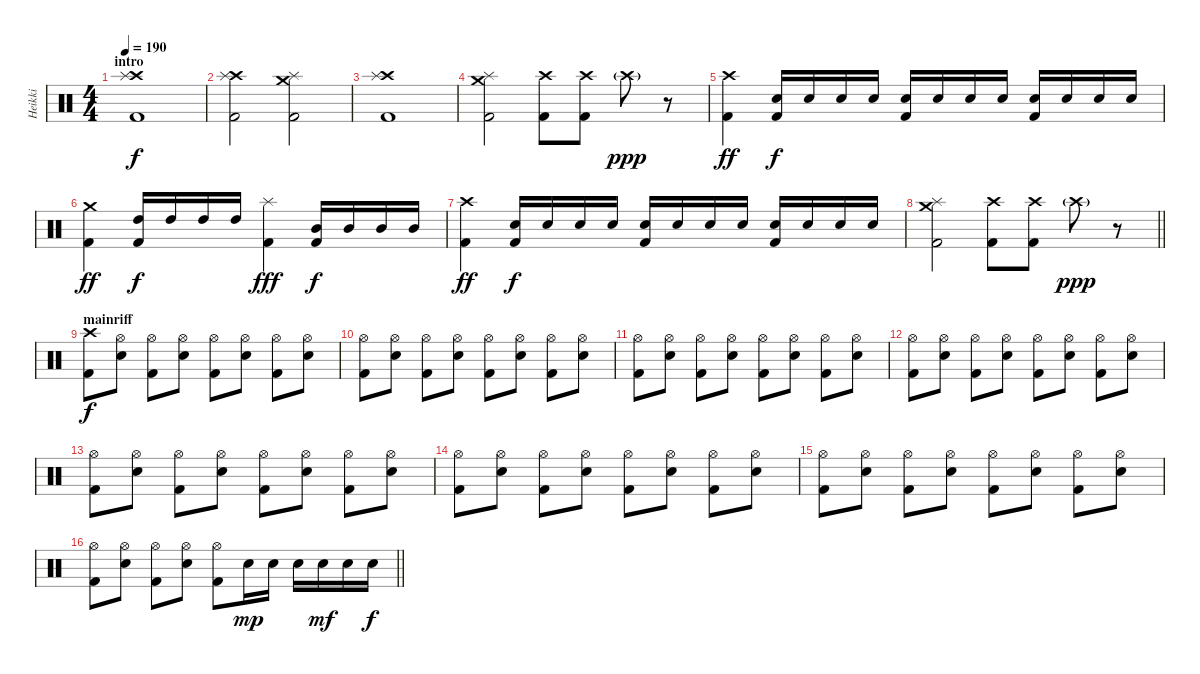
\track ("Heikki" "Heikki") {instrument percussion}
\staff {score}
\articulation defaults
\ts (4 4)
\section ("" "intro")
\tempo 190
\clef neutral
\ks c
("Crash high (hit)" "Splash (hit)" "Kick (hit) 2").1{dy f} |
("Crash high (hit)" "Splash (hit)" "Kick (hit) 2").2 ("Crash medium (hit)" "Splash (hit)" "Kick (hit) 2").2 |
("Crash high (hit)" "Splash (hit)" "Kick (hit) 2").1 |
("Crash medium (hit)" "Splash (hit)" "Kick (hit) 2").2 ("Crash high (hit)" "Kick (hit) 2").8 ("Crash high (hit)"{pm} "Kick (hit) 2").8 "Crash high (hit)"{g}.8{dy ppp} r.8 |
("Crash high (hit)" "Kick (hit) 2").4{dy ff} ("Electric Snare (hit)" "Kick (hit) 2").16{dy f} "Electric Snare (hit)".16 "Electric Snare (hit)".16 "Electric Snare (hit)".16 ("Electric Snare (hit)" "Kick (hit) 2").16 "Electric Snare (hit)".16 "Electric Snare (hit)".16 "Electric Snare (hit)".16 ("Electric Snare (hit)" "Kick (hit) 2").16 "Electric Snare (hit)".16 "Electric Snare (hit)".16 "Electric Snare (hit)".16 |
("Crash medium (hit)" "Kick (hit) 2").4{dy ff} ("High Tom (hit)" "Kick (hit) 2").16{dy f} "High Tom (hit)".16 "High Tom (hit)".16 "High Tom (hit)".16 ("Splash (hit)" "Kick (hit) 2").4{dy fff} ("Mid Tom (hit)" "Kick (hit) 2").16{dy f} "Mid Tom (hit)".16 "Mid Tom (hit)".16 "Mid Tom (hit)".16 |
("Crash high (hit)" "Kick (hit) 2").4{dy ff} ("Electric Snare (hit)" "Kick (hit) 2").16{dy f} "Electric Snare (hit)".16 "Electric Snare (hit)".16 "Electric Snare (hit)".16 ("Electric Snare (hit)" "Kick (hit) 2").16 "Electric Snare (hit)".16 "Electric Snare (hit)".16 "Electric Snare (hit)".16 ("Electric Snare (hit)" "Kick (hit) 2").16 "Electric Snare (hit)".16 "Electric Snare (hit)".16 "Electric Snare (hit)".16 |
\barLineRight lightlight
("Crash medium (hit)" "Splash (hit)" "Kick (hit) 2").2 ("Crash high (hit)" "Kick (hit) 2").8 ("Crash high (hit)"{pm} "Kick (hit) 2").8 "Crash high (hit)"{g}.8{dy ppp} r.8 |
\section ("" "mainriff")
("Crash high (hit)" "Kick (hit) 2").8{dy f} ("Hi-Hat (open)" "Electric Snare (hit)").8 ("Hi-Hat (open)" "Kick (hit) 2").8 ("Hi-Hat (open)" "Electric Snare (hit)").8 ("Hi-Hat (open)" "Kick (hit) 2").8 ("Hi-Hat (open)" "Electric Snare (hit)").8 ("Hi-Hat (open)" "Kick (hit) 2").8 ("Hi-Hat (open)" "Electric Snare (hit)").8 |
("Hi-Hat (open)" "Kick (hit) 2").8 ("Hi-Hat (open)" "Electric Snare (hit)").8 ("Hi-Hat (open)" "Kick (hit) 2").8 ("Hi-Hat (open)" "Electric Snare (hit)").8 ("Hi-Hat (open)" "Kick (hit) 2").8 ("Hi-Hat (open)" "Electric Snare (hit)").8 ("Hi-Hat (open)" "Kick (hit) 2").8 ("Hi-Hat (open)" "Electric Snare (hit)").8 |
("Hi-Hat (open)" "Kick (hit) 2").8 ("Hi-Hat (open)" "Electric Snare (hit)").8 ("Hi-Hat (open)" "Kick (hit) 2").8 ("Hi-Hat (open)" "Electric Snare (hit)").8 ("Hi-Hat (open)" "Kick (hit) 2").8 ("Hi-Hat (open)" "Electric Snare (hit)").8 ("Hi-Hat (open)" "Kick (hit) 2").8 ("Hi-Hat (open)" "Electric Snare (hit)").8 |
("Hi-Hat (open)" "Kick (hit) 2").8 ("Hi-Hat (open)" "Electric Snare (hit)").8 ("Hi-Hat (open)" "Kick (hit) 2").8 ("Hi-Hat (open)" "Electric Snare (hit)").8 ("Hi-Hat (open)" "Kick (hit) 2").8 ("Hi-Hat (open)" "Electric Snare (hit)").8 ("Hi-Hat (open)" "Kick (hit) 2").8 ("Hi-Hat (open)" "Electric Snare (hit)").8 |
("Hi-Hat (open)" "Kick (hit) 2").8 ("Hi-Hat (open)" "Electric Snare (hit)").8 ("Hi-Hat (open)" "Kick (hit) 2").8 ("Hi-Hat (open)" "Electric Snare (hit)").8 ("Hi-Hat (open)" "Kick (hit) 2").8 ("Hi-Hat (open)" "Electric Snare (hit)").8 ("Hi-Hat (open)" "Kick (hit) 2").8 ("Hi-Hat (open)" "Electric Snare (hit)").8 |
("Hi-Hat (open)" "Kick (hit) 2").8 ("Hi-Hat (open)" "Electric Snare (hit)").8 ("Hi-Hat (open)" "Kick (hit) 2").8 ("Hi-Hat (open)" "Electric Snare (hit)").8 ("Hi-Hat (open)" "Kick (hit) 2").8 ("Hi-Hat (open)" "Electric Snare (hit)").8 ("Hi-Hat (open)" "Kick (hit) 2").8 ("Hi-Hat (open)" "Electric Snare (hit)").8 |
("Hi-Hat (open)" "Kick (hit) 2").8 ("Hi-Hat (open)" "Electric Snare (hit)").8 ("Hi-Hat (open)" "Kick (hit) 2").8 ("Hi-Hat (open)" "Electric Snare (hit)").8 ("Hi-Hat (open)" "Kick (hit) 2").8 ("Hi-Hat (open)" "Electric Snare (hit)").8 ("Hi-Hat (open)" "Kick (hit) 2").8 ("Hi-Hat (open)" "Electric Snare (hit)").8 |
\barLineRight lightlight
("Hi-Hat (open)" "Kick (hit) 2").8 ("Hi-Hat (open)" "Electric Snare (hit)").8 ("Hi-Hat (open)" "Kick (hit) 2").8 ("Hi-Hat (open)" "Electric Snare (hit)").8 ("Hi-Hat (open)" "Kick (hit) 2").8 "Electric Snare (hit)".16{dy mp} "Electric Snare (hit)".16 "Electric Snare (hit)".16 "Electric Snare (hit)".16{dy mf} "Electric Snare (hit)".16 "Electric Snare (hit)".16{dy f}
